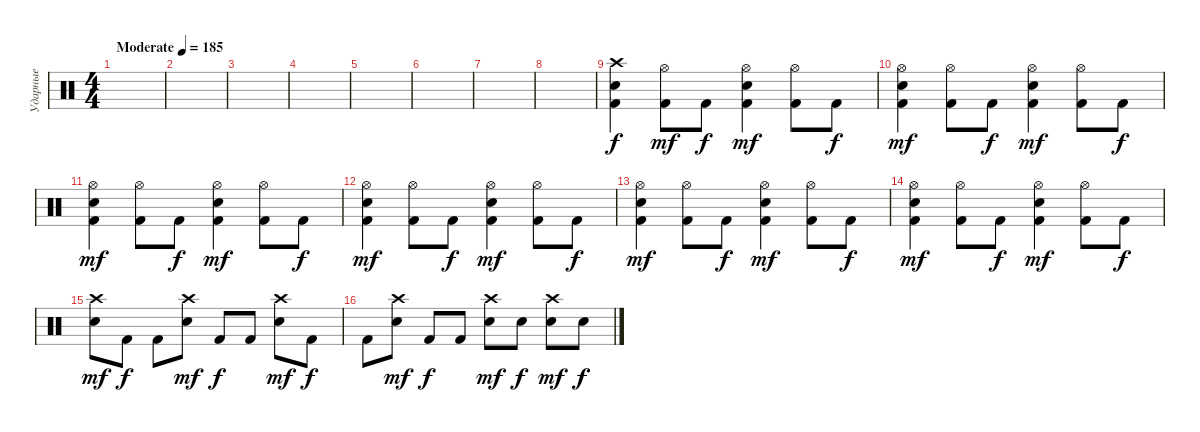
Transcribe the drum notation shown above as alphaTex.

\track ("Ударные" "Ударные") {instrument percussion}
\staff {score}
\articulation defaults
\ts (4 4)
\tempo (185 "Moderate")
\clef neutral
\ks c
|
|
|
|
|
|
|
|
("Kick (hit) 2" "Electric Snare (hit)" "Crash high (hit)").4 ("Kick (hit) 2" "Hi-Hat (open)").8{dy mf} "Kick (hit) 2".8{dy f} ("Kick (hit) 2" "Electric Snare (hit)" "Hi-Hat (open)").4{dy mf} ("Kick (hit) 2" "Hi-Hat (open)").8 "Kick (hit) 2".8{dy f} |
("Kick (hit) 2" "Electric Snare (hit)" "Hi-Hat (open)").4{dy mf} ("Kick (hit) 2" "Hi-Hat (open)").8 "Kick (hit) 2".8{dy f} ("Kick (hit) 2" "Electric Snare (hit)" "Hi-Hat (open)").4{dy mf} ("Kick (hit) 2" "Hi-Hat (open)").8 "Kick (hit) 2".8{dy f} |
("Kick (hit) 2" "Electric Snare (hit)" "Hi-Hat (open)").4{dy mf} ("Kick (hit) 2" "Hi-Hat (open)").8 "Kick (hit) 2".8{dy f} ("Kick (hit) 2" "Electric Snare (hit)" "Hi-Hat (open)").4{dy mf} ("Kick (hit) 2" "Hi-Hat (open)").8 "Kick (hit) 2".8{dy f} |
("Kick (hit) 2" "Electric Snare (hit)" "Hi-Hat (open)").4{dy mf} ("Kick (hit) 2" "Hi-Hat (open)").8 "Kick (hit) 2".8{dy f} ("Kick (hit) 2" "Electric Snare (hit)" "Hi-Hat (open)").4{dy mf} ("Kick (hit) 2" "Hi-Hat (open)").8 "Kick (hit) 2".8{dy f} |
("Kick (hit) 2" "Electric Snare (hit)" "Hi-Hat (open)").4{dy mf} ("Kick (hit) 2" "Hi-Hat (open)").8 "Kick (hit) 2".8{dy f} ("Kick (hit) 2" "Electric Snare (hit)" "Hi-Hat (open)").4{dy mf} ("Kick (hit) 2" "Hi-Hat (open)").8 "Kick (hit) 2".8{dy f} |
("Kick (hit) 2" "Electric Snare (hit)" "Hi-Hat (open)").4{dy mf} ("Kick (hit) 2" "Hi-Hat (open)").8 "Kick (hit) 2".8{dy f} ("Kick (hit) 2" "Electric Snare (hit)" "Hi-Hat (open)").4{dy mf} ("Kick (hit) 2" "Hi-Hat (open)").8 "Kick (hit) 2".8{dy f} |
("Electric Snare (hit)" "Crash high (hit)").8{dy mf} "Kick (hit) 2".8{dy f} "Kick (hit) 2".8 ("Electric Snare (hit)" "Crash high (hit)").8{dy mf} "Kick (hit) 2".8{dy f} "Kick (hit) 2".8 ("Electric Snare (hit)" "Crash high (hit)").8{dy mf} "Kick (hit) 2".8{dy f} |
"Kick (hit) 2".8 ("Electric Snare (hit)" "Crash high (hit)").8{dy mf} "Kick (hit) 2".8{dy f} "Kick (hit) 2".8 ("Electric Snare (hit)" "Crash high (hit)").8{dy mf} "Electric Snare (hit)".8{dy f} ("Electric Snare (hit)" "Crash high (hit)").8{dy mf} "Electric Snare (hit)".8{dy f}
